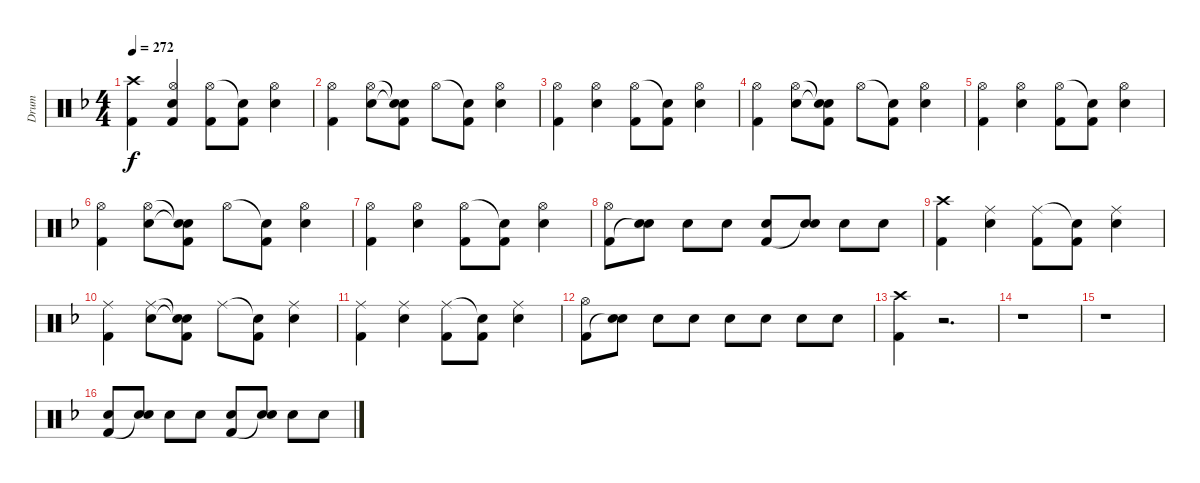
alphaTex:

\track ("Drum" "Drum") {instrument percussion}
\staff {score}
\articulation defaults
\ts (4 4)
\tempo 272
\clef neutral
\ks f
("Crash high (hit)" "Kick (hit) 2").4{dy f} ("Hi-Hat (open)" "Electric Snare (hit)" "Kick (hit) 2").4 ("Hi-Hat (open)" "Kick (hit) 2").8 ("Snare (hit)"{t} "Kick (hit) 2").8 ("Hi-Hat (open)" "Electric Snare (hit)").4 |
("Hi-Hat (open)" "Kick (hit) 2").4 ("Hi-Hat (open)" "Electric Snare (hit)").8 ("Snare (hit)"{t} "Snare (hit)"{t} "Kick (hit) 2").8 "Hi-Hat (open)".8 ("Snare (hit)"{t} "Kick (hit) 2").8 ("Hi-Hat (open)" "Electric Snare (hit)").4 |
("Hi-Hat (open)" "Kick (hit) 2").4 ("Hi-Hat (open)" "Electric Snare (hit)").4 ("Hi-Hat (open)" "Kick (hit) 2").8 ("Snare (hit)"{t} "Kick (hit) 2").8 ("Hi-Hat (open)" "Electric Snare (hit)").4 |
("Hi-Hat (open)" "Kick (hit) 2").4 ("Hi-Hat (open)" "Electric Snare (hit)").8 ("Snare (hit)"{t} "Snare (hit)"{t} "Kick (hit) 2").8 "Hi-Hat (open)".8 ("Snare (hit)"{t} "Kick (hit) 2").8 ("Hi-Hat (open)" "Electric Snare (hit)").4 |
("Hi-Hat (open)" "Kick (hit) 2").4 ("Hi-Hat (open)" "Electric Snare (hit)").4 ("Hi-Hat (open)" "Kick (hit) 2").8 ("Snare (hit)"{t} "Kick (hit) 2").8 ("Hi-Hat (open)" "Electric Snare (hit)").4 |
("Hi-Hat (open)" "Kick (hit) 2").4 ("Hi-Hat (open)" "Electric Snare (hit)").8 ("Snare (hit)"{t} "Snare (hit)"{t} "Kick (hit) 2").8 "Hi-Hat (open)".8 ("Snare (hit)"{t} "Kick (hit) 2").8 ("Hi-Hat (open)" "Electric Snare (hit)").4 |
("Hi-Hat (open)" "Kick (hit) 2").4 ("Hi-Hat (open)" "Electric Snare (hit)").4 ("Hi-Hat (open)" "Kick (hit) 2").8 ("Snare (hit)"{t} "Kick (hit) 2").8 ("Hi-Hat (open)" "Electric Snare (hit)").4 |
("Hi-Hat (open)" "Kick (hit) 2").8 ("Electric Snare (hit)" "Snare (hit)"{t}).8 "Electric Snare (hit)".8 "Electric Snare (hit)".8 ("Electric Snare (hit)" "Kick (hit) 2").8 ("Electric Snare (hit)" "Snare (hit)"{t}).8 "Electric Snare (hit)".8 "Electric Snare (hit)".8 |
("Crash high (hit)" "Kick (hit) 2").4 ("Ride (middle)" "Electric Snare (hit)").4 ("Ride (middle)" "Kick (hit) 2").8 ("Snare (hit)"{t} "Kick (hit) 2").8 ("Ride (middle)" "Electric Snare (hit)").4 |
("Ride (middle)" "Kick (hit) 2").4 ("Ride (middle)" "Electric Snare (hit)").8 ("Snare (hit)"{t} "Snare (hit)"{t} "Kick (hit) 2").8 "Ride (middle)".8 ("Snare (hit)"{t} "Kick (hit) 2").8 ("Ride (middle)" "Electric Snare (hit)").4 |
("Ride (middle)" "Kick (hit) 2").4 ("Ride (middle)" "Electric Snare (hit)").4 ("Ride (middle)" "Kick (hit) 2").8 ("Snare (hit)"{t} "Kick (hit) 2").8 ("Ride (middle)" "Electric Snare (hit)").4 |
("Hi-Hat (open)" "Kick (hit) 2").8 ("Electric Snare (hit)" "Snare (hit)"{t}).8 "Electric Snare (hit)".8 "Electric Snare (hit)".8 "Electric Snare (hit)".8 "Electric Snare (hit)".8 "Electric Snare (hit)".8 "Electric Snare (hit)".8 |
("Crash high (hit)" "Kick (hit) 2").4 r.2{d} |
r.1 |
r.1 |
("Electric Snare (hit)" "Kick (hit) 2").8 ("Electric Snare (hit)" "Snare (hit)"{t}).8 "Electric Snare (hit)".8 "Electric Snare (hit)".8 ("Electric Snare (hit)" "Kick (hit) 2").8 ("Electric Snare (hit)" "Snare (hit)"{t}).8 "Electric Snare (hit)".8 "Electric Snare (hit)".8
